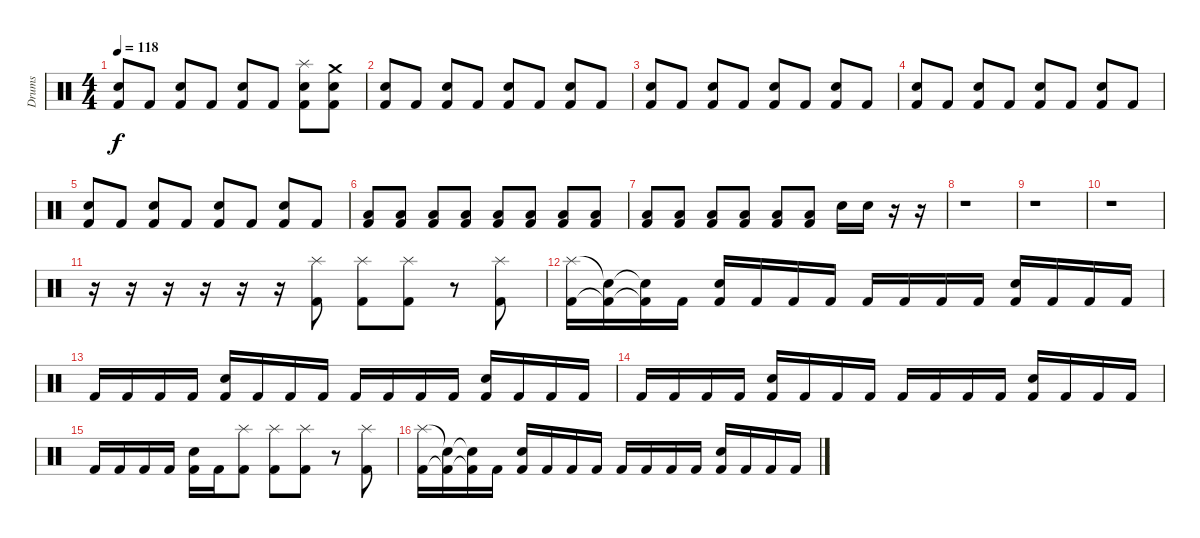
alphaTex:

\track ("Drums" "Drums") {instrument percussion}
\staff {score}
\articulation defaults
\ts (4 4)
\tempo 118
\clef neutral
\ks c
("Snare (hit) 2" "Kick (hit) 2").8{dy f} "Kick (hit) 2".8 ("Snare (hit) 2" "Kick (hit) 2").8 "Kick (hit) 2".8 ("Snare (hit) 2" "Kick (hit) 2").8 "Kick (hit) 2".8 ("Splash (hit)" "Snare (hit) 2" "Kick (hit) 2").8 ("Crash medium (hit)" "Snare (hit) 2" "Kick (hit) 2").8 |
("Snare (hit) 2" "Kick (hit) 2").8 "Kick (hit) 2".8 ("Snare (hit) 2" "Kick (hit) 2").8 "Kick (hit) 2".8 ("Snare (hit) 2" "Kick (hit) 2").8 "Kick (hit) 2".8 ("Snare (hit) 2" "Kick (hit) 2").8 "Kick (hit) 2".8 |
("Snare (hit) 2" "Kick (hit) 2").8 "Kick (hit) 2".8 ("Snare (hit) 2" "Kick (hit) 2").8 "Kick (hit) 2".8 ("Snare (hit) 2" "Kick (hit) 2").8 "Kick (hit) 2".8 ("Snare (hit) 2" "Kick (hit) 2").8 "Kick (hit) 2".8 |
("Snare (hit) 2" "Kick (hit) 2").8 "Kick (hit) 2".8 ("Snare (hit) 2" "Kick (hit) 2").8 "Kick (hit) 2".8 ("Snare (hit) 2" "Kick (hit) 2").8 "Kick (hit) 2".8 ("Snare (hit) 2" "Kick (hit) 2").8 "Kick (hit) 2".8 |
("Snare (hit) 2" "Kick (hit) 2").8 "Kick (hit) 2".8 ("Snare (hit) 2" "Kick (hit) 2").8 "Kick (hit) 2".8 ("Snare (hit) 2" "Kick (hit) 2").8 "Kick (hit) 2".8 ("Snare (hit) 2" "Kick (hit) 2").8 "Kick (hit) 2".8 |
("Low Floor Tom (hit)" "Kick (hit) 2").8 ("Low Floor Tom (hit)" "Kick (hit) 2").8 ("Low Floor Tom (hit)" "Kick (hit) 2").8 ("Low Floor Tom (hit)" "Kick (hit) 2").8 ("Low Floor Tom (hit)" "Kick (hit) 2").8 ("Low Floor Tom (hit)" "Kick (hit) 2").8 ("Low Floor Tom (hit)" "Kick (hit) 2").8 ("Low Floor Tom (hit)" "Kick (hit) 2").8 |
("Low Floor Tom (hit)" "Kick (hit) 2").8 ("Low Floor Tom (hit)" "Kick (hit) 2").8 ("Low Floor Tom (hit)" "Kick (hit) 2").8 ("Low Floor Tom (hit)" "Kick (hit) 2").8 ("Low Floor Tom (hit)" "Kick (hit) 2").8 ("Low Floor Tom (hit)" "Kick (hit) 2").8 "Snare (hit) 2".16 "Snare (hit) 2".16 r.16 r.16 |
r.1 |
r.1 |
r.1 |
r.16 r.16 r.16 r.16 r.16 r.16 ("Splash (hit)" "Kick (hit) 2").8 ("Splash (hit)" "Kick (hit) 2").8 ("Splash (hit)" "Kick (hit) 2").8 r.8 ("Splash (hit)" "Kick (hit) 2").8 |
("Splash (hit)" "Kick (hit) 2").16 ("Snare (hit)"{t} "Kick (hit) 2"{t}).16 ("Snare (hit)"{t} "Kick (hit) 2"{t}).16 "Kick (hit) 2".16 ("Snare (hit) 2" "Kick (hit) 2").16 "Kick (hit) 2".16 "Kick (hit) 2".16 "Kick (hit) 2".16 "Kick (hit) 2".16 "Kick (hit) 2".16 "Kick (hit) 2".16 "Kick (hit) 2".16 ("Snare (hit) 2" "Kick (hit) 2").16 "Kick (hit) 2".16 "Kick (hit) 2".16 "Kick (hit) 2".16 |
"Kick (hit) 2".16 "Kick (hit) 2".16 "Kick (hit) 2".16 "Kick (hit) 2".16 ("Snare (hit) 2" "Kick (hit) 2").16 "Kick (hit) 2".16 "Kick (hit) 2".16 "Kick (hit) 2".16 "Kick (hit) 2".16 "Kick (hit) 2".16 "Kick (hit) 2".16 "Kick (hit) 2".16 ("Snare (hit) 2" "Kick (hit) 2").16 "Kick (hit) 2".16 "Kick (hit) 2".16 "Kick (hit) 2".16 |
"Kick (hit) 2".16 "Kick (hit) 2".16 "Kick (hit) 2".16 "Kick (hit) 2".16 ("Snare (hit) 2" "Kick (hit) 2").16 "Kick (hit) 2".16 "Kick (hit) 2".16 "Kick (hit) 2".16 "Kick (hit) 2".16 "Kick (hit) 2".16 "Kick (hit) 2".16 "Kick (hit) 2".16 ("Snare (hit) 2" "Kick (hit) 2").16 "Kick (hit) 2".16 "Kick (hit) 2".16 "Kick (hit) 2".16 |
"Kick (hit) 2".16 "Kick (hit) 2".16 "Kick (hit) 2".16 "Kick (hit) 2".16 ("Snare (hit) 2" "Kick (hit) 2").16 "Kick (hit) 2".16 ("Splash (hit)" "Kick (hit) 2").8 ("Splash (hit)" "Kick (hit) 2").8 ("Splash (hit)" "Kick (hit) 2").8 r.8 ("Splash (hit)" "Kick (hit) 2").8 |
("Splash (hit)" "Kick (hit) 2").16 ("Snare (hit)"{t} "Kick (hit) 2"{t}).16 ("Snare (hit)"{t} "Kick (hit) 2"{t}).16 "Kick (hit) 2".16 ("Snare (hit) 2" "Kick (hit) 2").16 "Kick (hit) 2".16 "Kick (hit) 2".16 "Kick (hit) 2".16 "Kick (hit) 2".16 "Kick (hit) 2".16 "Kick (hit) 2".16 "Kick (hit) 2".16 ("Snare (hit) 2" "Kick (hit) 2").16 "Kick (hit) 2".16 "Kick (hit) 2".16 "Kick (hit) 2".16
